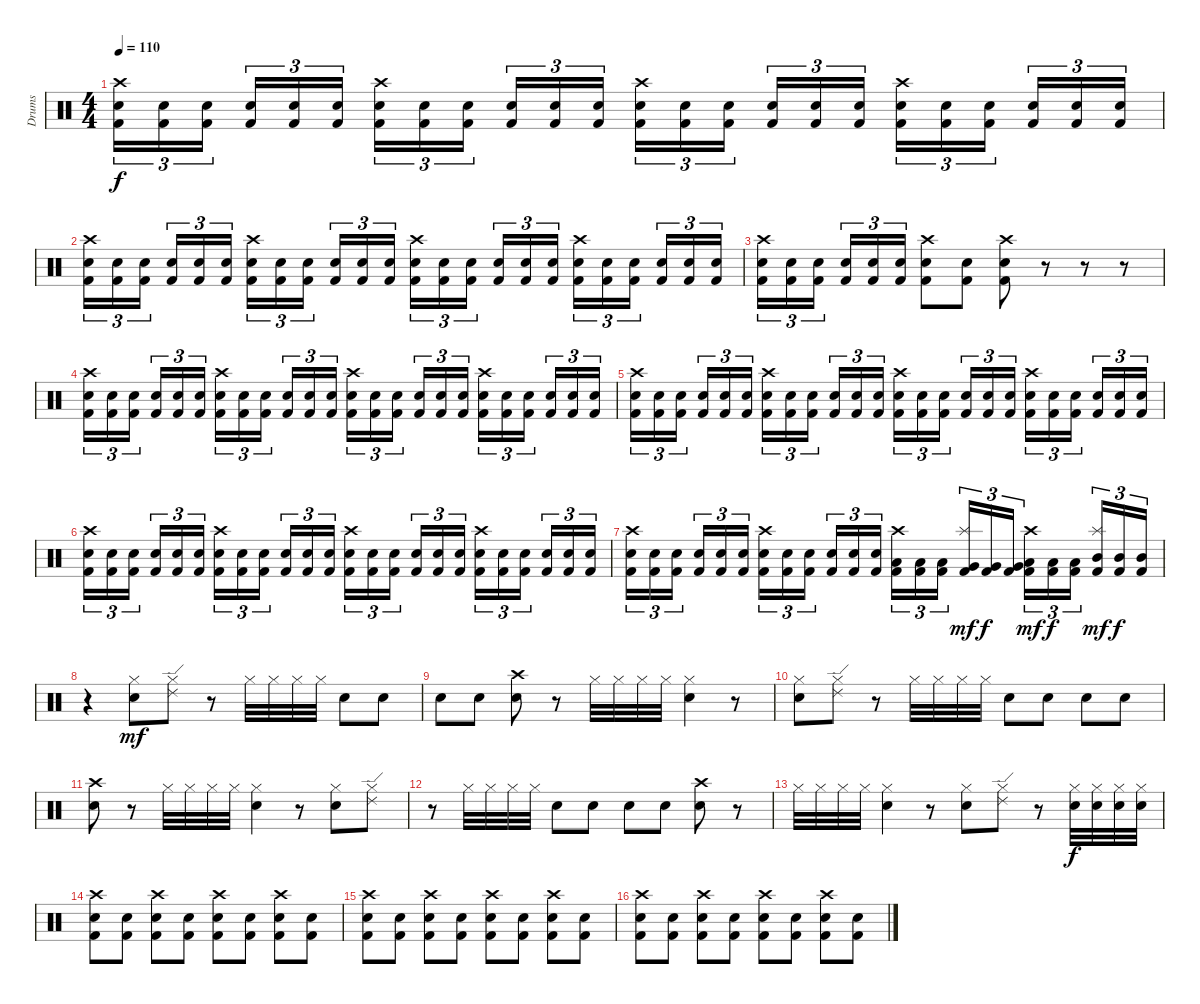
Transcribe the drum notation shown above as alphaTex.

\track ("Drums" "Drums") {instrument percussion}
\staff {score}
\articulation defaults
\ts (4 4)
\tempo 110
\clef neutral
\ks c
("Crash high (hit)" "Electric Snare (hit)" "Kick (hit) 2").16{tu (3 2) dy f} ("Electric Snare (hit)" "Kick (hit) 2").16{tu (3 2)} ("Electric Snare (hit)" "Kick (hit) 2").16{tu (3 2) beam splitsecondary} ("Electric Snare (hit)" "Kick (hit) 2").16{tu (3 2)} ("Electric Snare (hit)" "Kick (hit) 2").16{tu (3 2)} ("Electric Snare (hit)" "Kick (hit) 2").16{tu (3 2)} ("Crash high (hit)" "Electric Snare (hit)" "Kick (hit) 2").16{tu (3 2)} ("Electric Snare (hit)" "Kick (hit) 2").16{tu (3 2)} ("Electric Snare (hit)" "Kick (hit) 2").16{tu (3 2) beam splitsecondary} ("Electric Snare (hit)" "Kick (hit) 2").16{tu (3 2)} ("Electric Snare (hit)" "Kick (hit) 2").16{tu (3 2)} ("Electric Snare (hit)" "Kick (hit) 2").16{tu (3 2)} ("Crash high (hit)" "Electric Snare (hit)" "Kick (hit) 2").16{tu (3 2)} ("Electric Snare (hit)" "Kick (hit) 2").16{tu (3 2)} ("Electric Snare (hit)" "Kick (hit) 2").16{tu (3 2) beam splitsecondary} ("Electric Snare (hit)" "Kick (hit) 2").16{tu (3 2)} ("Electric Snare (hit)" "Kick (hit) 2").16{tu (3 2)} ("Electric Snare (hit)" "Kick (hit) 2").16{tu (3 2)} ("Crash high (hit)" "Electric Snare (hit)" "Kick (hit) 2").16{tu (3 2)} ("Electric Snare (hit)" "Kick (hit) 2").16{tu (3 2)} ("Electric Snare (hit)" "Kick (hit) 2").16{tu (3 2) beam splitsecondary} ("Electric Snare (hit)" "Kick (hit) 2").16{tu (3 2)} ("Electric Snare (hit)" "Kick (hit) 2").16{tu (3 2)} ("Electric Snare (hit)" "Kick (hit) 2").16{tu (3 2)} |
("Crash high (hit)" "Electric Snare (hit)" "Kick (hit) 2").16{tu (3 2)} ("Electric Snare (hit)" "Kick (hit) 2").16{tu (3 2)} ("Electric Snare (hit)" "Kick (hit) 2").16{tu (3 2) beam splitsecondary} ("Electric Snare (hit)" "Kick (hit) 2").16{tu (3 2)} ("Electric Snare (hit)" "Kick (hit) 2").16{tu (3 2)} ("Electric Snare (hit)" "Kick (hit) 2").16{tu (3 2)} ("Crash high (hit)" "Electric Snare (hit)" "Kick (hit) 2").16{tu (3 2)} ("Electric Snare (hit)" "Kick (hit) 2").16{tu (3 2)} ("Electric Snare (hit)" "Kick (hit) 2").16{tu (3 2) beam splitsecondary} ("Electric Snare (hit)" "Kick (hit) 2").16{tu (3 2)} ("Electric Snare (hit)" "Kick (hit) 2").16{tu (3 2)} ("Electric Snare (hit)" "Kick (hit) 2").16{tu (3 2)} ("Crash high (hit)" "Electric Snare (hit)" "Kick (hit) 2").16{tu (3 2)} ("Electric Snare (hit)" "Kick (hit) 2").16{tu (3 2)} ("Electric Snare (hit)" "Kick (hit) 2").16{tu (3 2) beam splitsecondary} ("Electric Snare (hit)" "Kick (hit) 2").16{tu (3 2)} ("Electric Snare (hit)" "Kick (hit) 2").16{tu (3 2)} ("Electric Snare (hit)" "Kick (hit) 2").16{tu (3 2)} ("Crash high (hit)" "Electric Snare (hit)" "Kick (hit) 2").16{tu (3 2)} ("Electric Snare (hit)" "Kick (hit) 2").16{tu (3 2)} ("Electric Snare (hit)" "Kick (hit) 2").16{tu (3 2) beam splitsecondary} ("Electric Snare (hit)" "Kick (hit) 2").16{tu (3 2)} ("Electric Snare (hit)" "Kick (hit) 2").16{tu (3 2)} ("Electric Snare (hit)" "Kick (hit) 2").16{tu (3 2)} |
("Crash high (hit)" "Electric Snare (hit)" "Kick (hit) 2").16{tu (3 2)} ("Electric Snare (hit)" "Kick (hit) 2").16{tu (3 2)} ("Electric Snare (hit)" "Kick (hit) 2").16{tu (3 2) beam splitsecondary} ("Electric Snare (hit)" "Kick (hit) 2").16{tu (3 2)} ("Electric Snare (hit)" "Kick (hit) 2").16{tu (3 2)} ("Electric Snare (hit)" "Kick (hit) 2").16{tu (3 2)} ("Crash high (hit)" "Electric Snare (hit)" "Kick (hit) 2").8 ("Electric Snare (hit)" "Kick (hit) 2").8 ("Crash high (hit)" "Electric Snare (hit)" "Kick (hit) 2").8 r.8 r.8 r.8 |
("Crash high (hit)" "Electric Snare (hit)" "Kick (hit) 2").16{tu (3 2)} ("Electric Snare (hit)" "Kick (hit) 2").16{tu (3 2)} ("Electric Snare (hit)" "Kick (hit) 2").16{tu (3 2) beam splitsecondary} ("Electric Snare (hit)" "Kick (hit) 2").16{tu (3 2)} ("Electric Snare (hit)" "Kick (hit) 2").16{tu (3 2)} ("Electric Snare (hit)" "Kick (hit) 2").16{tu (3 2)} ("Crash high (hit)" "Electric Snare (hit)" "Kick (hit) 2").16{tu (3 2)} ("Electric Snare (hit)" "Kick (hit) 2").16{tu (3 2)} ("Electric Snare (hit)" "Kick (hit) 2").16{tu (3 2) beam splitsecondary} ("Electric Snare (hit)" "Kick (hit) 2").16{tu (3 2)} ("Electric Snare (hit)" "Kick (hit) 2").16{tu (3 2)} ("Electric Snare (hit)" "Kick (hit) 2").16{tu (3 2)} ("Crash high (hit)" "Electric Snare (hit)" "Kick (hit) 2").16{tu (3 2)} ("Electric Snare (hit)" "Kick (hit) 2").16{tu (3 2)} ("Electric Snare (hit)" "Kick (hit) 2").16{tu (3 2) beam splitsecondary} ("Electric Snare (hit)" "Kick (hit) 2").16{tu (3 2)} ("Electric Snare (hit)" "Kick (hit) 2").16{tu (3 2)} ("Electric Snare (hit)" "Kick (hit) 2").16{tu (3 2)} ("Crash high (hit)" "Electric Snare (hit)" "Kick (hit) 2").16{tu (3 2)} ("Electric Snare (hit)" "Kick (hit) 2").16{tu (3 2)} ("Electric Snare (hit)" "Kick (hit) 2").16{tu (3 2) beam splitsecondary} ("Electric Snare (hit)" "Kick (hit) 2").16{tu (3 2)} ("Electric Snare (hit)" "Kick (hit) 2").16{tu (3 2)} ("Electric Snare (hit)" "Kick (hit) 2").16{tu (3 2)} |
("Crash high (hit)" "Electric Snare (hit)" "Kick (hit) 2").16{tu (3 2)} ("Electric Snare (hit)" "Kick (hit) 2").16{tu (3 2)} ("Electric Snare (hit)" "Kick (hit) 2").16{tu (3 2) beam splitsecondary} ("Electric Snare (hit)" "Kick (hit) 2").16{tu (3 2)} ("Electric Snare (hit)" "Kick (hit) 2").16{tu (3 2)} ("Electric Snare (hit)" "Kick (hit) 2").16{tu (3 2)} ("Crash high (hit)" "Electric Snare (hit)" "Kick (hit) 2").16{tu (3 2)} ("Electric Snare (hit)" "Kick (hit) 2").16{tu (3 2)} ("Electric Snare (hit)" "Kick (hit) 2").16{tu (3 2) beam splitsecondary} ("Electric Snare (hit)" "Kick (hit) 2").16{tu (3 2)} ("Electric Snare (hit)" "Kick (hit) 2").16{tu (3 2)} ("Electric Snare (hit)" "Kick (hit) 2").16{tu (3 2)} ("Crash high (hit)" "Electric Snare (hit)" "Kick (hit) 2").16{tu (3 2)} ("Electric Snare (hit)" "Kick (hit) 2").16{tu (3 2)} ("Electric Snare (hit)" "Kick (hit) 2").16{tu (3 2) beam splitsecondary} ("Electric Snare (hit)" "Kick (hit) 2").16{tu (3 2)} ("Electric Snare (hit)" "Kick (hit) 2").16{tu (3 2)} ("Electric Snare (hit)" "Kick (hit) 2").16{tu (3 2)} ("Crash high (hit)" "Electric Snare (hit)" "Kick (hit) 2").16{tu (3 2)} ("Electric Snare (hit)" "Kick (hit) 2").16{tu (3 2)} ("Electric Snare (hit)" "Kick (hit) 2").16{tu (3 2) beam splitsecondary} ("Electric Snare (hit)" "Kick (hit) 2").16{tu (3 2)} ("Electric Snare (hit)" "Kick (hit) 2").16{tu (3 2)} ("Electric Snare (hit)" "Kick (hit) 2").16{tu (3 2)} |
("Crash high (hit)" "Electric Snare (hit)" "Kick (hit) 2").16{tu (3 2)} ("Electric Snare (hit)" "Kick (hit) 2").16{tu (3 2)} ("Electric Snare (hit)" "Kick (hit) 2").16{tu (3 2) beam splitsecondary} ("Electric Snare (hit)" "Kick (hit) 2").16{tu (3 2)} ("Electric Snare (hit)" "Kick (hit) 2").16{tu (3 2)} ("Electric Snare (hit)" "Kick (hit) 2").16{tu (3 2)} ("Crash high (hit)" "Electric Snare (hit)" "Kick (hit) 2").16{tu (3 2)} ("Electric Snare (hit)" "Kick (hit) 2").16{tu (3 2)} ("Electric Snare (hit)" "Kick (hit) 2").16{tu (3 2) beam splitsecondary} ("Electric Snare (hit)" "Kick (hit) 2").16{tu (3 2)} ("Electric Snare (hit)" "Kick (hit) 2").16{tu (3 2)} ("Electric Snare (hit)" "Kick (hit) 2").16{tu (3 2)} ("Crash high (hit)" "Electric Snare (hit)" "Kick (hit) 2").16{tu (3 2)} ("Electric Snare (hit)" "Kick (hit) 2").16{tu (3 2)} ("Electric Snare (hit)" "Kick (hit) 2").16{tu (3 2) beam splitsecondary} ("Electric Snare (hit)" "Kick (hit) 2").16{tu (3 2)} ("Electric Snare (hit)" "Kick (hit) 2").16{tu (3 2)} ("Electric Snare (hit)" "Kick (hit) 2").16{tu (3 2)} ("Crash high (hit)" "Electric Snare (hit)" "Kick (hit) 2").16{tu (3 2)} ("Electric Snare (hit)" "Kick (hit) 2").16{tu (3 2)} ("Electric Snare (hit)" "Kick (hit) 2").16{tu (3 2) beam splitsecondary} ("Electric Snare (hit)" "Kick (hit) 2").16{tu (3 2)} ("Electric Snare (hit)" "Kick (hit) 2").16{tu (3 2)} ("Electric Snare (hit)" "Kick (hit) 2").16{tu (3 2)} |
("Crash high (hit)" "Electric Snare (hit)" "Kick (hit) 2").16{tu (3 2)} ("Electric Snare (hit)" "Kick (hit) 2").16{tu (3 2)} ("Electric Snare (hit)" "Kick (hit) 2").16{tu (3 2) beam splitsecondary} ("Electric Snare (hit)" "Kick (hit) 2").16{tu (3 2)} ("Electric Snare (hit)" "Kick (hit) 2").16{tu (3 2)} ("Electric Snare (hit)" "Kick (hit) 2").16{tu (3 2)} ("Crash high (hit)" "Electric Snare (hit)" "Kick (hit) 2").16{tu (3 2)} ("Electric Snare (hit)" "Kick (hit) 2").16{tu (3 2)} ("Electric Snare (hit)" "Kick (hit) 2").16{tu (3 2) beam splitsecondary} ("Electric Snare (hit)" "Kick (hit) 2").16{tu (3 2)} ("Electric Snare (hit)" "Kick (hit) 2").16{tu (3 2)} ("Electric Snare (hit)" "Kick (hit) 2").16{tu (3 2)} ("Crash high (hit)" "Low Tom (hit)" "Kick (hit) 2").16{tu (3 2)} ("Low Tom (hit)" "Kick (hit) 2").16{tu (3 2)} ("Low Tom (hit)" "Kick (hit) 2").16{tu (3 2) beam splitsecondary} ("Splash (hit)" "Very Low Tom (hit)" "Kick (hit) 2").16{tu (3 2) dy mf} ("Very Low Tom (hit)" "Kick (hit) 2").16{tu (3 2) dy f} ("Very Low Tom (hit)" "Kick (hit) 2").16{tu (3 2)} ("Crash high (hit)" "Low Floor Tom (hit)" "Kick (hit) 2").16{tu (3 2) dy mf} ("Low Floor Tom (hit)" "Kick (hit) 2").16{tu (3 2) dy f} ("Low Floor Tom (hit)" "Kick (hit) 2").16{tu (3 2) beam splitsecondary} ("Splash (hit)" "Mid Tom (hit)" "Kick (hit) 2").16{tu (3 2) dy mf} ("Mid Tom (hit)" "Kick (hit) 2").16{tu (3 2) dy f} ("Mid Tom (hit)" "Kick (hit) 2").16{tu (3 2)} |
r.4 ("Hi-Hat (closed)" "Electric Snare (hit)").8{dy mf} ("Hi-Hat (closed)" "Ride (edge) 2").8 r.8 "Hi-Hat (closed)".32 "Hi-Hat (closed)".32 "Hi-Hat (closed)".32 "Hi-Hat (closed)".32 "Electric Snare (hit)".8 "Electric Snare (hit)".8 |
"Electric Snare (hit)".8 "Electric Snare (hit)".8 ("Crash high (hit)" "Electric Snare (hit)").8 r.8 "Hi-Hat (closed)".32 "Hi-Hat (closed)".32 "Hi-Hat (closed)".32 "Hi-Hat (closed)".32 ("Hi-Hat (closed)" "Electric Snare (hit)").4 r.8 |
("Hi-Hat (closed)" "Electric Snare (hit)").8 ("Hi-Hat (closed)" "Ride (edge) 2").8 r.8 "Hi-Hat (closed)".32 "Hi-Hat (closed)".32 "Hi-Hat (closed)".32 "Hi-Hat (closed)".32 "Electric Snare (hit)".8 "Electric Snare (hit)".8 "Electric Snare (hit)".8 "Electric Snare (hit)".8 |
("Crash high (hit)" "Electric Snare (hit)").8 r.8 "Hi-Hat (closed)".32 "Hi-Hat (closed)".32 "Hi-Hat (closed)".32 "Hi-Hat (closed)".32 ("Hi-Hat (closed)" "Electric Snare (hit)").4 r.8 ("Hi-Hat (closed)" "Electric Snare (hit)").8 ("Hi-Hat (closed)" "Ride (edge) 2").8 |
r.8 "Hi-Hat (closed)".32 "Hi-Hat (closed)".32 "Hi-Hat (closed)".32 "Hi-Hat (closed)".32 "Electric Snare (hit)".8 "Electric Snare (hit)".8 "Electric Snare (hit)".8 "Electric Snare (hit)".8 ("Crash high (hit)" "Electric Snare (hit)").8 r.8 |
"Hi-Hat (closed)".32 "Hi-Hat (closed)".32 "Hi-Hat (closed)".32 "Hi-Hat (closed)".32 ("Hi-Hat (closed)" "Electric Snare (hit)").4 r.8 ("Hi-Hat (closed)" "Electric Snare (hit)").8 ("Hi-Hat (closed)" "Ride (edge) 2").8 r.8 ("Hi-Hat (closed)" "Electric Snare (hit)").32{dy f} ("Hi-Hat (closed)" "Electric Snare (hit)").32 ("Hi-Hat (closed)" "Electric Snare (hit)").32 ("Hi-Hat (closed)" "Electric Snare (hit)").32 |
("Crash high (hit)" "Electric Snare (hit)" "Kick (hit) 2").8 ("Electric Snare (hit)" "Kick (hit) 2").8 ("Crash high (hit)" "Electric Snare (hit)" "Kick (hit) 2").8 ("Electric Snare (hit)" "Kick (hit) 2").8 ("Crash high (hit)" "Electric Snare (hit)" "Kick (hit) 2").8 ("Electric Snare (hit)" "Kick (hit) 2").8 ("Crash high (hit)" "Electric Snare (hit)" "Kick (hit) 2").8 ("Electric Snare (hit)" "Kick (hit) 2").8 |
("Crash high (hit)" "Electric Snare (hit)" "Kick (hit) 2").8 ("Electric Snare (hit)" "Kick (hit) 2").8 ("Crash high (hit)" "Electric Snare (hit)" "Kick (hit) 2").8 ("Electric Snare (hit)" "Kick (hit) 2").8 ("Crash high (hit)" "Electric Snare (hit)" "Kick (hit) 2").8 ("Electric Snare (hit)" "Kick (hit) 2").8 ("Crash high (hit)" "Electric Snare (hit)" "Kick (hit) 2").8 ("Electric Snare (hit)" "Kick (hit) 2").8 |
("Crash high (hit)" "Electric Snare (hit)" "Kick (hit) 2").8 ("Electric Snare (hit)" "Kick (hit) 2").8 ("Crash high (hit)" "Electric Snare (hit)" "Kick (hit) 2").8 ("Electric Snare (hit)" "Kick (hit) 2").8 ("Crash high (hit)" "Electric Snare (hit)" "Kick (hit) 2").8 ("Electric Snare (hit)" "Kick (hit) 2").8 ("Crash high (hit)" "Electric Snare (hit)" "Kick (hit) 2").8 ("Electric Snare (hit)" "Kick (hit) 2").8
